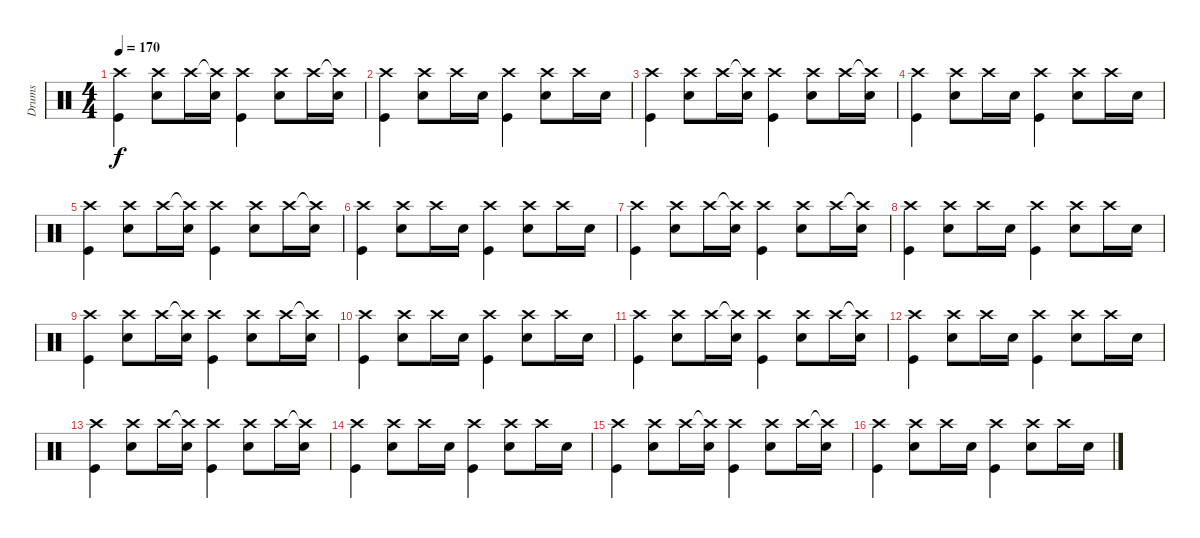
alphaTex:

\track ("Drums" "Drums") {instrument percussion}
\staff {score}
\articulation defaults
\ts (4 4)
\tempo 170
\clef neutral
\ks c
("Crash high (hit)" "Kick (hit)").4{dy f} ("Crash high (hit)" "Snare (hit) 2").8 "Crash high (hit)".16 ("Crash high (hit)"{t} "Snare (hit) 2").16 ("Crash high (hit)" "Kick (hit)").4 ("Crash high (hit)" "Snare (hit) 2").8 "Crash high (hit)".16 ("Crash high (hit)"{t} "Snare (hit) 2").16 |
("Crash high (hit)" "Kick (hit)").4 ("Crash high (hit)" "Snare (hit) 2").8 "Crash high (hit)".16 "Snare (hit) 2".16 ("Crash high (hit)" "Kick (hit)").4 ("Crash high (hit)" "Snare (hit) 2").8 "Crash high (hit)".16 "Snare (hit) 2".16 |
("Crash high (hit)" "Kick (hit)").4 ("Crash high (hit)" "Snare (hit) 2").8 "Crash high (hit)".16 ("Crash high (hit)"{t} "Snare (hit) 2").16 ("Crash high (hit)" "Kick (hit)").4 ("Crash high (hit)" "Snare (hit) 2").8 "Crash high (hit)".16 ("Crash high (hit)"{t} "Snare (hit) 2").16 |
("Crash high (hit)" "Kick (hit)").4 ("Crash high (hit)" "Snare (hit) 2").8 "Crash high (hit)".16 "Snare (hit) 2".16 ("Crash high (hit)" "Kick (hit)").4 ("Crash high (hit)" "Snare (hit) 2").8 "Crash high (hit)".16 "Snare (hit) 2".16 |
("Crash high (hit)" "Kick (hit)").4 ("Crash high (hit)" "Snare (hit) 2").8 "Crash high (hit)".16 ("Crash high (hit)"{t} "Snare (hit) 2").16 ("Crash high (hit)" "Kick (hit)").4 ("Crash high (hit)" "Snare (hit) 2").8 "Crash high (hit)".16 ("Crash high (hit)"{t} "Snare (hit) 2").16 |
("Crash high (hit)" "Kick (hit)").4 ("Crash high (hit)" "Snare (hit) 2").8 "Crash high (hit)".16 "Snare (hit) 2".16 ("Crash high (hit)" "Kick (hit)").4 ("Crash high (hit)" "Snare (hit) 2").8 "Crash high (hit)".16 "Snare (hit) 2".16 |
("Crash high (hit)" "Kick (hit)").4 ("Crash high (hit)" "Snare (hit) 2").8 "Crash high (hit)".16 ("Crash high (hit)"{t} "Snare (hit) 2").16 ("Crash high (hit)" "Kick (hit)").4 ("Crash high (hit)" "Snare (hit) 2").8 "Crash high (hit)".16 ("Crash high (hit)"{t} "Snare (hit) 2").16 |
("Crash high (hit)" "Kick (hit)").4 ("Crash high (hit)" "Snare (hit) 2").8 "Crash high (hit)".16 "Snare (hit) 2".16 ("Crash high (hit)" "Kick (hit)").4 ("Crash high (hit)" "Snare (hit) 2").8 "Crash high (hit)".16 "Snare (hit) 2".16 |
("Crash high (hit)" "Kick (hit)").4 ("Crash high (hit)" "Snare (hit) 2").8 "Crash high (hit)".16 ("Crash high (hit)"{t} "Snare (hit) 2").16 ("Crash high (hit)" "Kick (hit)").4 ("Crash high (hit)" "Snare (hit) 2").8 "Crash high (hit)".16 ("Crash high (hit)"{t} "Snare (hit) 2").16 |
("Crash high (hit)" "Kick (hit)").4 ("Crash high (hit)" "Snare (hit) 2").8 "Crash high (hit)".16 "Snare (hit) 2".16 ("Crash high (hit)" "Kick (hit)").4 ("Crash high (hit)" "Snare (hit) 2").8 "Crash high (hit)".16 "Snare (hit) 2".16 |
("Crash high (hit)" "Kick (hit)").4 ("Crash high (hit)" "Snare (hit) 2").8 "Crash high (hit)".16 ("Crash high (hit)"{t} "Snare (hit) 2").16 ("Crash high (hit)" "Kick (hit)").4 ("Crash high (hit)" "Snare (hit) 2").8 "Crash high (hit)".16 ("Crash high (hit)"{t} "Snare (hit) 2").16 |
("Crash high (hit)" "Kick (hit)").4 ("Crash high (hit)" "Snare (hit) 2").8 "Crash high (hit)".16 "Snare (hit) 2".16 ("Crash high (hit)" "Kick (hit)").4 ("Crash high (hit)" "Snare (hit) 2").8 "Crash high (hit)".16 "Snare (hit) 2".16 |
("Crash high (hit)" "Kick (hit)").4 ("Crash high (hit)" "Snare (hit) 2").8 "Crash high (hit)".16 ("Crash high (hit)"{t} "Snare (hit) 2").16 ("Crash high (hit)" "Kick (hit)").4 ("Crash high (hit)" "Snare (hit) 2").8 "Crash high (hit)".16 ("Crash high (hit)"{t} "Snare (hit) 2").16 |
("Crash high (hit)" "Kick (hit)").4 ("Crash high (hit)" "Snare (hit) 2").8 "Crash high (hit)".16 "Snare (hit) 2".16 ("Crash high (hit)" "Kick (hit)").4 ("Crash high (hit)" "Snare (hit) 2").8 "Crash high (hit)".16 "Snare (hit) 2".16 |
("Crash high (hit)" "Kick (hit)").4 ("Crash high (hit)" "Snare (hit) 2").8 "Crash high (hit)".16 ("Crash high (hit)"{t} "Snare (hit) 2").16 ("Crash high (hit)" "Kick (hit)").4 ("Crash high (hit)" "Snare (hit) 2").8 "Crash high (hit)".16 ("Crash high (hit)"{t} "Snare (hit) 2").16 |
("Crash high (hit)" "Kick (hit)").4 ("Crash high (hit)" "Snare (hit) 2").8 "Crash high (hit)".16 "Snare (hit) 2".16 ("Crash high (hit)" "Kick (hit)").4 ("Crash high (hit)" "Snare (hit) 2").8 "Crash high (hit)".16 "Snare (hit) 2".16
